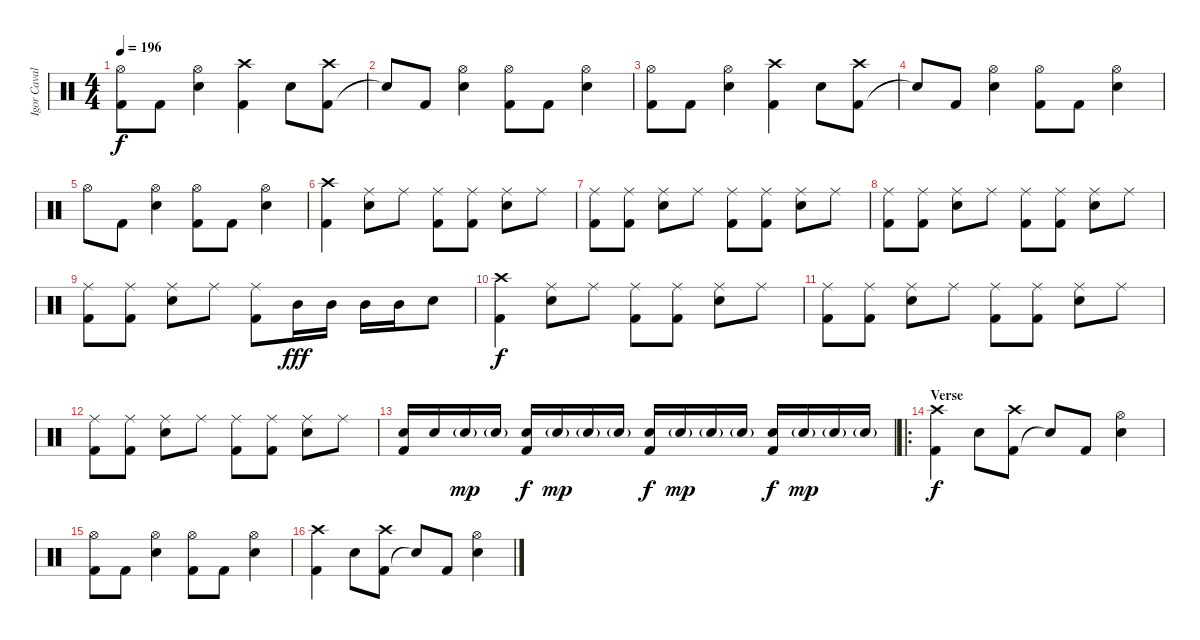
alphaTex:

\track ("Igor Cavalera" "Igor Caval") {instrument percussion}
\staff {score}
\articulation defaults
\ts (4 4)
\tempo 196
\clef neutral
\ks c
("Kick (hit) 2" "Hi-Hat (open)").8{dy f} "Kick (hit) 2".8 ("Snare (hit) 2" "Hi-Hat (open)").4 ("Kick (hit) 2" "Crash high (hit)").4 "Snare (hit) 2".8 ("Kick (hit) 2" "Crash high (hit)").8 |
"Snare (hit)"{t}.8 "Kick (hit) 2".8 ("Snare (hit) 2" "Hi-Hat (open)").4 ("Kick (hit) 2" "Hi-Hat (open)").8 "Kick (hit) 2".8 ("Snare (hit) 2" "Hi-Hat (open)").4 |
("Kick (hit) 2" "Hi-Hat (open)").8 "Kick (hit) 2".8 ("Snare (hit) 2" "Hi-Hat (open)").4 ("Kick (hit) 2" "Crash high (hit)").4 "Snare (hit) 2".8 ("Kick (hit) 2" "Crash high (hit)").8 |
"Snare (hit)"{t}.8 "Kick (hit) 2".8 ("Snare (hit) 2" "Hi-Hat (open)").4 ("Kick (hit) 2" "Hi-Hat (open)").8 "Kick (hit) 2".8 ("Snare (hit) 2" "Hi-Hat (open)").4 |
"Hi-Hat (open)".8 "Kick (hit) 2".8 ("Snare (hit) 2" "Hi-Hat (open)").4 ("Kick (hit) 2" "Hi-Hat (open)").8 "Kick (hit) 2".8 ("Snare (hit) 2" "Hi-Hat (open)").4 |
("Kick (hit) 2" "Crash high (hit)").4 ("Snare (hit) 2" "Ride (middle)").8 "Ride (middle)".8 ("Kick (hit) 2" "Ride (middle)").8 ("Kick (hit) 2" "Ride (middle)").8 ("Snare (hit) 2" "Ride (middle)").8 "Ride (middle)".8 |
("Kick (hit) 2" "Ride (middle)").8 ("Kick (hit) 2" "Ride (middle)").8 ("Snare (hit) 2" "Ride (middle)").8 "Ride (middle)".8 ("Kick (hit) 2" "Ride (middle)").8 ("Kick (hit) 2" "Ride (middle)").8 ("Snare (hit) 2" "Ride (middle)").8 "Ride (middle)".8 |
("Kick (hit) 2" "Ride (middle)").8 ("Kick (hit) 2" "Ride (middle)").8 ("Snare (hit) 2" "Ride (middle)").8 "Ride (middle)".8 ("Kick (hit) 2" "Ride (middle)").8 ("Kick (hit) 2" "Ride (middle)").8 ("Snare (hit) 2" "Ride (middle)").8 "Ride (middle)".8 |
("Kick (hit) 2" "Ride (middle)").8 ("Kick (hit) 2" "Ride (middle)").8 ("Snare (hit) 2" "Ride (middle)").8 "Ride (middle)".8 ("Kick (hit) 2" "Ride (middle)").8 "Mid Tom (hit)".16{dy fff} "Mid Tom (hit)".16 "Mid Tom (hit)".16 "Mid Tom (hit)".16 "Snare (hit) 2".8 |
("Kick (hit) 2" "Crash high (hit)").4{dy f} ("Snare (hit) 2" "Ride (middle)").8 "Ride (middle)".8 ("Kick (hit) 2" "Ride (middle)").8 ("Kick (hit) 2" "Ride (middle)").8 ("Snare (hit) 2" "Ride (middle)").8 "Ride (middle)".8 |
("Kick (hit) 2" "Ride (middle)").8 ("Kick (hit) 2" "Ride (middle)").8 ("Snare (hit) 2" "Ride (middle)").8 "Ride (middle)".8 ("Kick (hit) 2" "Ride (middle)").8 ("Kick (hit) 2" "Ride (middle)").8 ("Snare (hit) 2" "Ride (middle)").8 "Ride (middle)".8 |
("Kick (hit) 2" "Ride (middle)").8 ("Kick (hit) 2" "Ride (middle)").8 ("Snare (hit) 2" "Ride (middle)").8 "Ride (middle)".8 ("Kick (hit) 2" "Ride (middle)").8 ("Kick (hit) 2" "Ride (middle)").8 ("Snare (hit) 2" "Ride (middle)").8 "Ride (middle)".8 |
("Kick (hit) 2" "Snare (hit) 2").16 "Snare (hit) 2".16 "Snare (hit) 2"{g}.16{dy mp} "Snare (hit) 2"{g}.16 ("Kick (hit) 2" "Snare (hit) 2").16{dy f} "Snare (hit) 2"{g}.16{dy mp} "Snare (hit) 2"{g}.16 "Snare (hit) 2"{g}.16 ("Kick (hit) 2" "Snare (hit) 2").16{dy f} "Snare (hit) 2"{g}.16{dy mp} "Snare (hit) 2"{g}.16 "Snare (hit) 2"{g}.16 ("Kick (hit) 2" "Snare (hit) 2").16{dy f} "Snare (hit) 2"{g}.16{dy mp} "Snare (hit) 2"{g}.16 "Snare (hit) 2"{g}.16 |
\ro
\section ("" "Verse ")
("Kick (hit) 2" "Crash high (hit)").4{dy f} "Snare (hit) 2".8 ("Kick (hit) 2" "Crash high (hit)").8 "Snare (hit)"{t}.8 "Kick (hit) 2".8 ("Snare (hit) 2" "Hi-Hat (open)").4 |
("Kick (hit) 2" "Hi-Hat (open)").8 "Kick (hit) 2".8 ("Snare (hit) 2" "Hi-Hat (open)").4 ("Kick (hit) 2" "Hi-Hat (open)").8 "Kick (hit) 2".8 ("Snare (hit) 2" "Hi-Hat (open)").4 |
("Kick (hit) 2" "Crash high (hit)").4 "Snare (hit) 2".8 ("Kick (hit) 2" "Crash high (hit)").8 "Snare (hit)"{t}.8 "Kick (hit) 2".8 ("Snare (hit) 2" "Hi-Hat (open)").4
